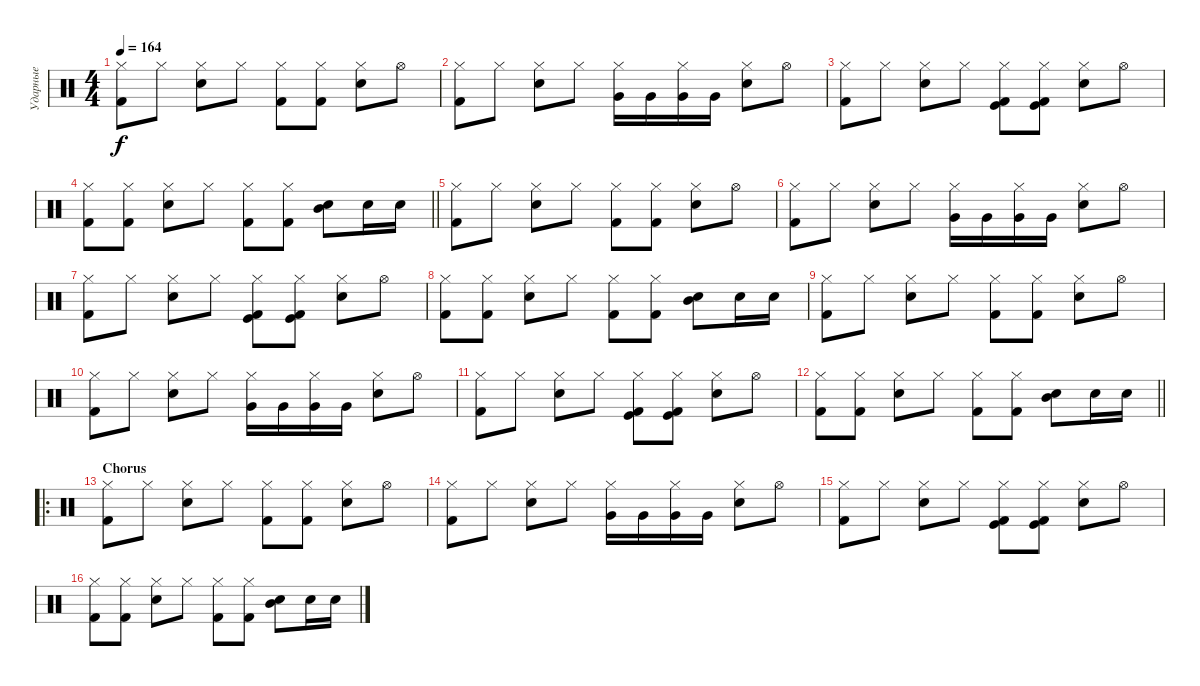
\track ("Ударные" "Ударные") {instrument percussion}
\staff {score}
\articulation defaults
\ts (4 4)
\tempo 164
\clef neutral
\ks c
("Hi-Hat (closed)" "Kick (hit) 2").8{dy f} "Hi-Hat (closed)".8 ("Hi-Hat (closed)" "Snare (hit) 2").8 "Hi-Hat (closed)".8 ("Hi-Hat (closed)" "Kick (hit) 2").8 ("Hi-Hat (closed)" "Kick (hit) 2").8 ("Hi-Hat (closed)" "Snare (hit) 2").8 "Hi-Hat (open)".8 |
("Hi-Hat (closed)" "Kick (hit) 2").8 "Hi-Hat (closed)".8 ("Hi-Hat (closed)" "Snare (hit) 2").8 "Hi-Hat (closed)".8 ("Hi-Hat (closed)" "Very Low Tom (hit)").16 "Very Low Tom (hit)".16 ("Hi-Hat (closed)" "Very Low Tom (hit)").16 "Very Low Tom (hit)".16 ("Hi-Hat (closed)" "Snare (hit) 2").8 "Hi-Hat (open)".8 |
("Hi-Hat (closed)" "Kick (hit) 2").8 "Hi-Hat (closed)".8 ("Hi-Hat (closed)" "Snare (hit) 2").8 "Hi-Hat (closed)".8 ("Hi-Hat (closed)" "Kick (hit)" "Kick (hit) 2").8 ("Hi-Hat (closed)" "Kick (hit)" "Kick (hit) 2").8 ("Hi-Hat (closed)" "Snare (hit) 2").8 "Hi-Hat (open)".8 |
\barLineRight lightlight
("Hi-Hat (closed)" "Kick (hit) 2").8 ("Hi-Hat (closed)" "Kick (hit) 2").8 ("Hi-Hat (closed)" "Snare (hit) 2").8 "Hi-Hat (closed)".8 ("Hi-Hat (closed)" "Kick (hit) 2").8 ("Hi-Hat (closed)" "Kick (hit) 2").8 ("Snare (hit) 2" "Mid Tom (hit)").8 "Snare (hit) 2".16 "Snare (hit) 2".16 |
("Hi-Hat (closed)" "Kick (hit) 2").8 "Hi-Hat (closed)".8 ("Hi-Hat (closed)" "Snare (hit) 2").8 "Hi-Hat (closed)".8 ("Hi-Hat (closed)" "Kick (hit) 2").8 ("Hi-Hat (closed)" "Kick (hit) 2").8 ("Hi-Hat (closed)" "Snare (hit) 2").8 "Hi-Hat (open)".8 |
("Hi-Hat (closed)" "Kick (hit) 2").8 "Hi-Hat (closed)".8 ("Hi-Hat (closed)" "Snare (hit) 2").8 "Hi-Hat (closed)".8 ("Hi-Hat (closed)" "Very Low Tom (hit)").16 "Very Low Tom (hit)".16 ("Hi-Hat (closed)" "Very Low Tom (hit)").16 "Very Low Tom (hit)".16 ("Hi-Hat (closed)" "Snare (hit) 2").8 "Hi-Hat (open)".8 |
("Hi-Hat (closed)" "Kick (hit) 2").8 "Hi-Hat (closed)".8 ("Hi-Hat (closed)" "Snare (hit) 2").8 "Hi-Hat (closed)".8 ("Hi-Hat (closed)" "Kick (hit)" "Kick (hit) 2").8 ("Hi-Hat (closed)" "Kick (hit)" "Kick (hit) 2").8 ("Hi-Hat (closed)" "Snare (hit) 2").8 "Hi-Hat (open)".8 |
("Hi-Hat (closed)" "Kick (hit) 2").8 ("Hi-Hat (closed)" "Kick (hit) 2").8 ("Hi-Hat (closed)" "Snare (hit) 2").8 "Hi-Hat (closed)".8 ("Hi-Hat (closed)" "Kick (hit) 2").8 ("Hi-Hat (closed)" "Kick (hit) 2").8 ("Snare (hit) 2" "Mid Tom (hit)").8 "Snare (hit) 2".16 "Snare (hit) 2".16 |
("Hi-Hat (closed)" "Kick (hit) 2").8 "Hi-Hat (closed)".8 ("Hi-Hat (closed)" "Snare (hit) 2").8 "Hi-Hat (closed)".8 ("Hi-Hat (closed)" "Kick (hit) 2").8 ("Hi-Hat (closed)" "Kick (hit) 2").8 ("Hi-Hat (closed)" "Snare (hit) 2").8 "Hi-Hat (open)".8 |
("Hi-Hat (closed)" "Kick (hit) 2").8 "Hi-Hat (closed)".8 ("Hi-Hat (closed)" "Snare (hit) 2").8 "Hi-Hat (closed)".8 ("Hi-Hat (closed)" "Very Low Tom (hit)").16 "Very Low Tom (hit)".16 ("Hi-Hat (closed)" "Very Low Tom (hit)").16 "Very Low Tom (hit)".16 ("Hi-Hat (closed)" "Snare (hit) 2").8 "Hi-Hat (open)".8 |
("Hi-Hat (closed)" "Kick (hit) 2").8 "Hi-Hat (closed)".8 ("Hi-Hat (closed)" "Snare (hit) 2").8 "Hi-Hat (closed)".8 ("Hi-Hat (closed)" "Kick (hit)" "Kick (hit) 2").8 ("Hi-Hat (closed)" "Kick (hit)" "Kick (hit) 2").8 ("Hi-Hat (closed)" "Snare (hit) 2").8 "Hi-Hat (open)".8 |
\barLineRight lightlight
("Hi-Hat (closed)" "Kick (hit) 2").8 ("Hi-Hat (closed)" "Kick (hit) 2").8 ("Hi-Hat (closed)" "Snare (hit) 2").8 "Hi-Hat (closed)".8 ("Hi-Hat (closed)" "Kick (hit) 2").8 ("Hi-Hat (closed)" "Kick (hit) 2").8 ("Snare (hit) 2" "Mid Tom (hit)").8 "Snare (hit) 2".16 "Snare (hit) 2".16 |
\ro
\section ("" "Chorus")
("Hi-Hat (closed)" "Kick (hit) 2").8 "Hi-Hat (closed)".8 ("Hi-Hat (closed)" "Snare (hit) 2").8 "Hi-Hat (closed)".8 ("Hi-Hat (closed)" "Kick (hit) 2").8 ("Hi-Hat (closed)" "Kick (hit) 2").8 ("Hi-Hat (closed)" "Snare (hit) 2").8 "Hi-Hat (open)".8 |
("Hi-Hat (closed)" "Kick (hit) 2").8 "Hi-Hat (closed)".8 ("Hi-Hat (closed)" "Snare (hit) 2").8 "Hi-Hat (closed)".8 ("Hi-Hat (closed)" "Very Low Tom (hit)").16 "Very Low Tom (hit)".16 ("Hi-Hat (closed)" "Very Low Tom (hit)").16 "Very Low Tom (hit)".16 ("Hi-Hat (closed)" "Snare (hit) 2").8 "Hi-Hat (open)".8 |
("Hi-Hat (closed)" "Kick (hit) 2").8 "Hi-Hat (closed)".8 ("Hi-Hat (closed)" "Snare (hit) 2").8 "Hi-Hat (closed)".8 ("Hi-Hat (closed)" "Kick (hit)" "Kick (hit) 2").8 ("Hi-Hat (closed)" "Kick (hit)" "Kick (hit) 2").8 ("Hi-Hat (closed)" "Snare (hit) 2").8 "Hi-Hat (open)".8 |
("Hi-Hat (closed)" "Kick (hit) 2").8 ("Hi-Hat (closed)" "Kick (hit) 2").8 ("Hi-Hat (closed)" "Snare (hit) 2").8 "Hi-Hat (closed)".8 ("Hi-Hat (closed)" "Kick (hit) 2").8 ("Hi-Hat (closed)" "Kick (hit) 2").8 ("Snare (hit) 2" "Mid Tom (hit)").8 "Snare (hit) 2".16 "Snare (hit) 2".16
